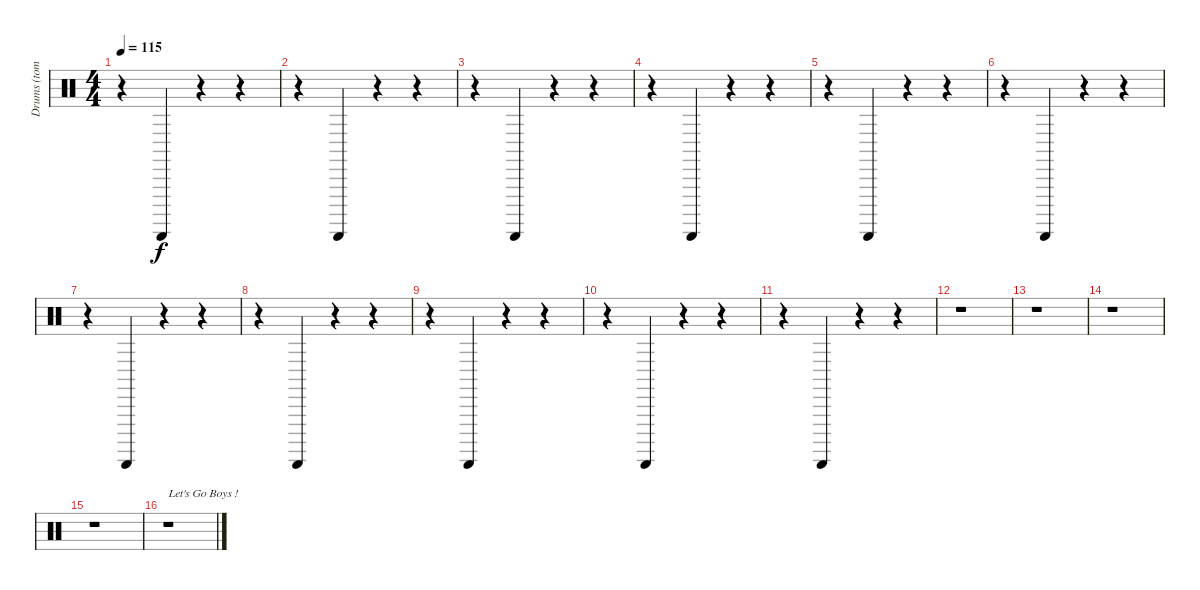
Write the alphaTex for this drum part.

\track ("Drums (toms)" "Drums (tom") {instrument percussion}
\staff {score}
\articulation defaults
\ts (4 4)
\tempo 115
\clef neutral
\ks c
r.4{dy f} "Guiro (scrap-return)".4 r.4 r.4 |
r.4 "Guiro (scrap-return)".4 r.4 r.4 |
r.4 "Guiro (scrap-return)".4 r.4 r.4 |
r.4 "Guiro (scrap-return)".4 r.4 r.4 |
r.4 "Guiro (scrap-return)".4 r.4 r.4 |
r.4 "Guiro (scrap-return)".4 r.4 r.4 |
r.4 "Guiro (scrap-return)".4 r.4 r.4 |
r.4 "Guiro (scrap-return)".4 r.4 r.4 |
r.4 "Guiro (scrap-return)".4 r.4 r.4 |
r.4 "Guiro (scrap-return)".4 r.4 r.4 |
r.4 "Guiro (scrap-return)".4 r.4 r.4 |
r.1 |
r.1 |
r.1 |
r.1 |
r.1{txt "Let's Go Boys !"}
